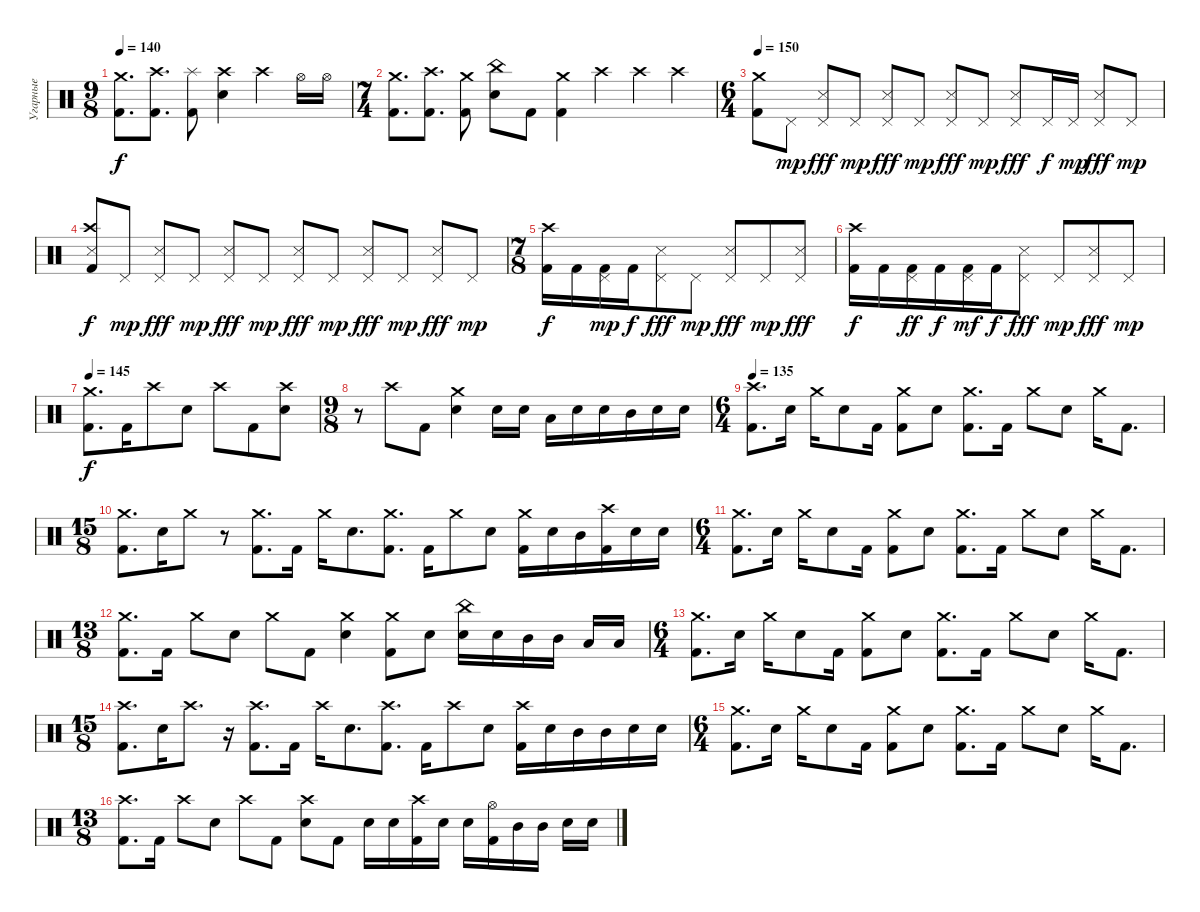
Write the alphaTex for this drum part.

\track ("Угарные" "Угарные") {instrument percussion}
\staff {score}
\articulation defaults
\ts (9 8)
\tempo 140
\clef neutral
\ks c
("Kick (hit) 2" "Crash medium (hit)").8{d dy f} ("Kick (hit) 2" "Crash high (hit)").8{d} ("Kick (hit) 2" "Splash (hit)").8 ("Electric Snare (hit)" "Crash high (hit)").4 "Crash high (hit)".4 "Hi-Hat (open)".16 "Hi-Hat (open)".16 |
\ts (7 4)
("Kick (hit) 2" "Crash medium (hit)").8{d} ("Kick (hit) 2" "Crash high (hit)").8{d} ("Kick (hit) 2" "Crash medium (hit)").8 ("Electric Snare (hit)" "China (hit)").8 "Kick (hit) 2".8 ("Kick (hit) 2" "Crash medium (hit)").4 "Crash high (hit)".4 "Crash high (hit)".4 "Crash high (hit)".4 |
\ts (6 4)
\tempo 150
("Kick (hit) 2" "Crash medium (hit)").8 "Pedal Hi-Hat (hit)".8{dy mp} ("Pedal Hi-Hat (hit)" "Snare (side stick) 3").8{dy fff} "Pedal Hi-Hat (hit)".8{dy mp} ("Pedal Hi-Hat (hit)" "Snare (side stick) 3").8{dy fff} "Pedal Hi-Hat (hit)".8{dy mp} ("Pedal Hi-Hat (hit)" "Snare (side stick) 3").8{dy fff} "Pedal Hi-Hat (hit)".8{dy mp} ("Pedal Hi-Hat (hit)" "Snare (side stick) 3").8{dy fff} "Pedal Hi-Hat (hit)".16{dy f} "Pedal Hi-Hat (hit)".16{dy mp} ("Pedal Hi-Hat (hit)" "Snare (side stick) 3").8{dy fff} "Pedal Hi-Hat (hit)".8{dy mp} |
("Kick (hit) 2" "Crash high (hit)" "Snare (side stick) 3").8{dy f} "Pedal Hi-Hat (hit)".8{dy mp} ("Pedal Hi-Hat (hit)" "Snare (side stick) 3").8{dy fff} "Pedal Hi-Hat (hit)".8{dy mp} ("Pedal Hi-Hat (hit)" "Snare (side stick) 3").8{dy fff} "Pedal Hi-Hat (hit)".8{dy mp} ("Pedal Hi-Hat (hit)" "Snare (side stick) 3").8{dy fff} "Pedal Hi-Hat (hit)".8{dy mp} ("Pedal Hi-Hat (hit)" "Snare (side stick) 3").8{dy fff} "Pedal Hi-Hat (hit)".8{dy mp} ("Pedal Hi-Hat (hit)" "Snare (side stick) 3").8{dy fff} "Pedal Hi-Hat (hit)".8{dy mp} |
\ts (7 8)
("Kick (hit) 2" "Crash high (hit)").16{dy f} "Kick (hit) 2".16 ("Kick (hit) 2" "Pedal Hi-Hat (hit)").16{dy mp} "Kick (hit) 2".16{dy f} ("Pedal Hi-Hat (hit)" "Snare (side stick) 3").8{dy fff} "Pedal Hi-Hat (hit)".8{dy mp} ("Pedal Hi-Hat (hit)" "Snare (side stick) 3").8{dy fff} "Pedal Hi-Hat (hit)".8{dy mp} ("Pedal Hi-Hat (hit)" "Snare (side stick) 3").8{dy fff} |
("Kick (hit) 2" "Crash high (hit)").16{dy f} "Kick (hit) 2".16 ("Kick (hit) 2" "Pedal Hi-Hat (hit)").16{dy ff} "Kick (hit) 2".16{dy f} ("Kick (hit) 2" "Pedal Hi-Hat (hit)").16{dy mf} "Kick (hit) 2".16{dy f} ("Pedal Hi-Hat (hit)" "Snare (side stick) 3").8{dy fff} "Pedal Hi-Hat (hit)".8{dy mp} ("Pedal Hi-Hat (hit)" "Snare (side stick) 3").8{dy fff} "Pedal Hi-Hat (hit)".8{dy mp} |
\tempo 145
("Kick (hit) 2" "Crash medium (hit)").8{d dy f} "Kick (hit) 2".16 "Crash high (hit)".8 "Electric Snare (hit)".8 "Crash high (hit)".8 "Kick (hit) 2".8 ("Electric Snare (hit)" "Crash high (hit)").8 |
\ts (9 8)
r.8 "Crash high (hit)".8 "Kick (hit) 2".8 ("Electric Snare (hit)" "Crash medium (hit)").4 "Electric Snare (hit)".16 "Electric Snare (hit)".16 "Low Floor Tom (hit)".16 "Electric Snare (hit)".16 "Electric Snare (hit)".16 "Mid Tom (hit)".16 "Electric Snare (hit)".16 "Electric Snare (hit)".16 |
\ts (6 4)
\tempo 135
("Kick (hit) 2" "Crash high (hit)").8{d} "Electric Snare (hit)".16 "Crash medium (hit)".16 "Electric Snare (hit)".8 "Kick (hit) 2".16 ("Kick (hit) 2" "Crash medium (hit)").8 "Electric Snare (hit)".8 ("Kick (hit) 2" "Crash medium (hit)").8{d} "Kick (hit) 2".16 "Crash medium (hit)".8 "Electric Snare (hit)".8 "Crash medium (hit)".16 "Kick (hit) 2".8{d} |
\ts (15 8)
("Kick (hit) 2" "Crash medium (hit)").8{d} "Electric Snare (hit)".16 "Crash medium (hit)".8 r.8 ("Kick (hit) 2" "Crash medium (hit)").8{d} "Kick (hit) 2".16 "Crash medium (hit)".16 "Electric Snare (hit)".8{d} ("Kick (hit) 2" "Crash medium (hit)").8{d} "Kick (hit) 2".16 "Crash medium (hit)".8 "Electric Snare (hit)".8 ("Kick (hit) 2" "Crash medium (hit)").16 "Electric Snare (hit)".16 "Mid Tom (hit)".16 ("Kick (hit) 2" "Crash high (hit)").16 "Electric Snare (hit)".16 "Electric Snare (hit)".16 |
\ts (6 4)
("Kick (hit) 2" "Crash medium (hit)").8{d} "Electric Snare (hit)".16 "Crash medium (hit)".16 "Electric Snare (hit)".8 "Kick (hit) 2".16 ("Kick (hit) 2" "Crash medium (hit)").8 "Electric Snare (hit)".8 ("Kick (hit) 2" "Crash medium (hit)").8{d} "Kick (hit) 2".16 "Crash medium (hit)".8 "Electric Snare (hit)".8 "Crash medium (hit)".16 "Kick (hit) 2".8{d} |
\ts (13 8)
("Kick (hit) 2" "Crash medium (hit)").8{d} "Kick (hit) 2".16 "Crash medium (hit)".8 "Electric Snare (hit)".8 "Crash medium (hit)".8 "Kick (hit) 2".8 ("Electric Snare (hit)" "Crash medium (hit)").4 ("Kick (hit) 2" "Crash medium (hit)").8 "Electric Snare (hit)".8 ("Electric Snare (hit)" "China (hit)").16 "Electric Snare (hit)".16 "Mid Tom (hit)".16 "Mid Tom (hit)".16 "Low Tom (hit)".16 "Low Tom (hit)".16 |
\ts (6 4)
("Kick (hit) 2" "Crash medium (hit)").8{d} "Electric Snare (hit)".16 "Crash medium (hit)".16 "Electric Snare (hit)".8 "Kick (hit) 2".16 ("Kick (hit) 2" "Crash medium (hit)").8 "Electric Snare (hit)".8 ("Kick (hit) 2" "Crash medium (hit)").8{d} "Kick (hit) 2".16 "Crash medium (hit)".8 "Electric Snare (hit)".8 "Crash medium (hit)".16 "Kick (hit) 2".8{d} |
\ts (15 8)
("Kick (hit) 2" "Crash high (hit)").8{d} "Electric Snare (hit)".16 "Crash high (hit)".8{d} r.16 ("Kick (hit) 2" "Crash high (hit)").8{d} "Kick (hit) 2".16 "Crash high (hit)".16 "Electric Snare (hit)".8{d} ("Kick (hit) 2" "Crash high (hit)").8{d} "Kick (hit) 2".16 "Crash high (hit)".8 "Electric Snare (hit)".8 ("Kick (hit) 2" "Crash high (hit)").16 "Electric Snare (hit)".16 "Mid Tom (hit)".16 "Mid Tom (hit)".16 "Electric Snare (hit)".16 "Electric Snare (hit)".16 |
\ts (6 4)
("Kick (hit) 2" "Crash medium (hit)").8{d} "Electric Snare (hit)".16 "Crash medium (hit)".16 "Electric Snare (hit)".8 "Kick (hit) 2".16 ("Kick (hit) 2" "Crash medium (hit)").8 "Electric Snare (hit)".8 ("Kick (hit) 2" "Crash medium (hit)").8{d} "Kick (hit) 2".16 "Crash medium (hit)".8 "Electric Snare (hit)".8 "Crash medium (hit)".16 "Kick (hit) 2".8{d} |
\ts (13 8)
("Kick (hit) 2" "Crash high (hit)").8{d} "Kick (hit) 2".16 "Crash high (hit)".8 "Electric Snare (hit)".8 "Crash high (hit)".8 "Kick (hit) 2".8 ("Electric Snare (hit)" "Crash high (hit)").8 "Kick (hit) 2".8 "Electric Snare (hit)".16 "Electric Snare (hit)".16 ("Kick (hit) 2" "Crash high (hit)").16 "Electric Snare (hit)".16 "Electric Snare (hit)".16 ("Hi-Hat (open)" "Kick (hit) 2").16 "Mid Tom (hit)".16 "Mid Tom (hit)".16 "Electric Snare (hit)".16 "Electric Snare (hit)".16
